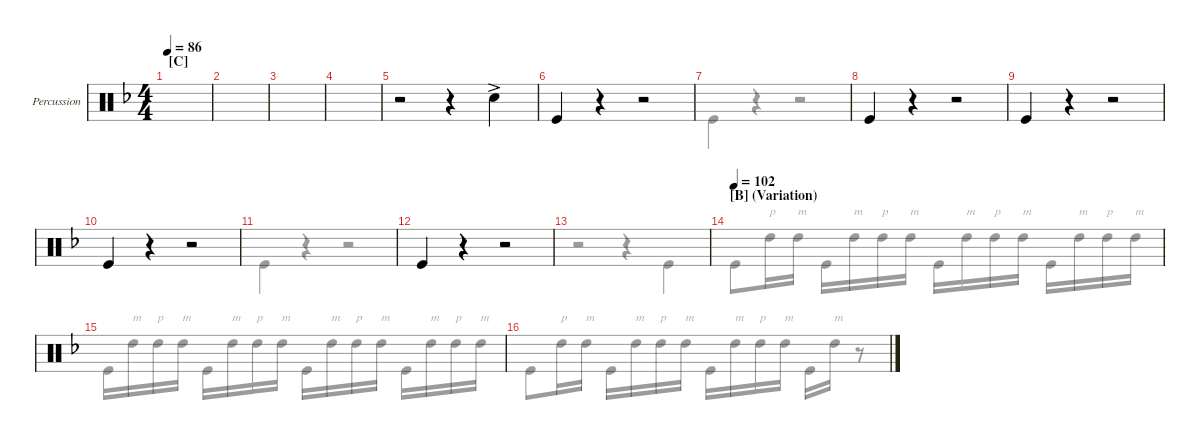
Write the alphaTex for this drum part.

\defaultSystemsLayout 4
\hideDynamics
\bracketExtendMode groupsimilarinstruments
\firstSystemTrackNameMode fullname
\otherSystemsTrackNameMode fullname
\firstSystemTrackNameOrientation horizontal
\otherSystemsTrackNameOrientation horizontal
\track ("Percussion" "Perc.") {instrument percussion}
\staff {score}
\articulation defaults
\voice
\ts (4 4)
\section ("C" "")
\tempo 86
\clef neutral
\ks dminor
|
|
|
|
r.2 r.4 "Snare (hit) 2"{ac}.4{dy mp} |
"Kick (hit)".4{dy mf} r.4 r.2 |
|
"Kick (hit)".4 r.4 r.2 |
"Kick (hit)".4 r.4 r.2 |
"Kick (hit)".4 r.4 r.2 |
|
"Kick (hit)".4 r.4 r.2 |
|
\section ("B" "(Variation)")
\tempo 102
|
|
\voice
\clef neutral
\ottava regular
\simile none
\ks dminor
|
|
|
|
|
|
"Kick (hit)".4 r.4 r.2 |
|
|
|
"Kick (hit)".4 r.4 r.2 |
|
r.2 r.4 "Kick (hit)".4 |
"Kick (hit)".8 "High Tom (hit)".16{txt "p"} "High Tom (hit)".16{txt "m"} "Kick (hit)".16 "High Tom (hit)".16{txt "m"} "High Tom (hit)".16{txt "p"} "High Tom (hit)".16{txt "m"} "Kick (hit)".16 "High Tom (hit)".16{txt "m"} "High Tom (hit)".16{txt "p"} "High Tom (hit)".16{txt "m"} "Kick (hit)".16 "High Tom (hit)".16{txt "m"} "High Tom (hit)".16{txt "p"} "High Tom (hit)".16{txt "m"} |
"Kick (hit)".16 "High Tom (hit)".16{txt "m"} "High Tom (hit)".16{txt "p"} "High Tom (hit)".16{txt "m"} "Kick (hit)".16 "High Tom (hit)".16{txt "m"} "High Tom (hit)".16{txt "p"} "High Tom (hit)".16{txt "m"} "Kick (hit)".16 "High Tom (hit)".16{txt "m"} "High Tom (hit)".16{txt "p"} "High Tom (hit)".16{txt "m"} "Kick (hit)".16 "High Tom (hit)".16{txt "m"} "High Tom (hit)".16{txt "p"} "High Tom (hit)".16{txt "m"} |
"Kick (hit)".8 "High Tom (hit)".16{txt "p"} "High Tom (hit)".16{txt "m"} "Kick (hit)".16 "High Tom (hit)".16{txt "m"} "High Tom (hit)".16{txt "p"} "High Tom (hit)".16{txt "m"} "Kick (hit)".16 "High Tom (hit)".16{txt "m"} "High Tom (hit)".16{txt "p"} "High Tom (hit)".16{txt "m"} "Kick (hit)".16 "High Tom (hit)".16{txt "m"} r.8
